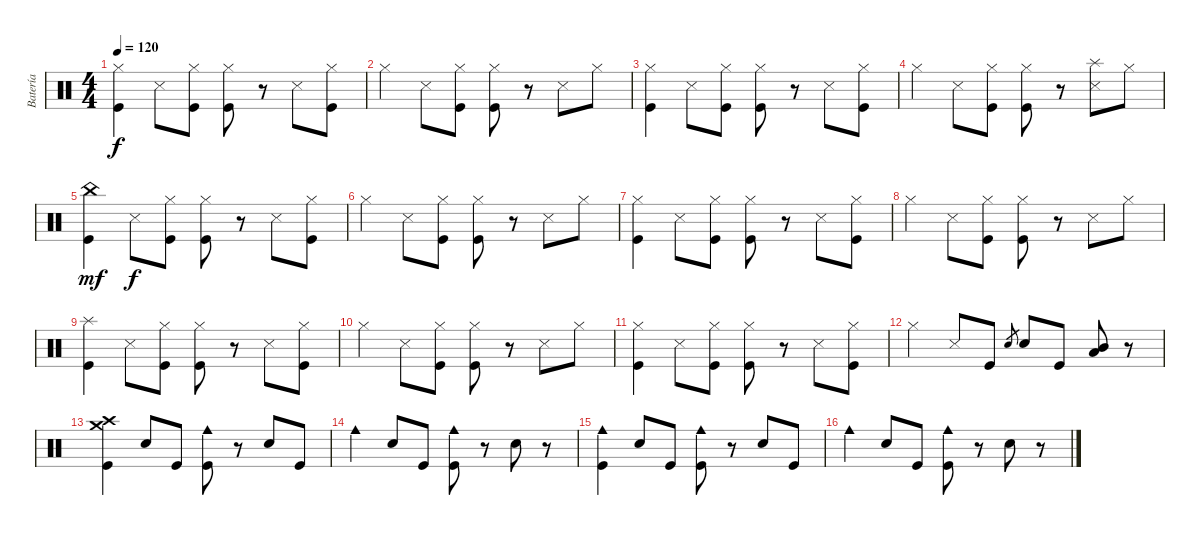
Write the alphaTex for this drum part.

\track ("Batería" "Batería") {instrument percussion}
\staff {score}
\articulation defaults
\ts (4 4)
\tempo 120
\clef neutral
\ks c
("Hi-Hat (closed)" "Kick (hit)").4{dy f} "Snare (side stick) 3".8 ("Hi-Hat (closed)" "Kick (hit)").8 ("Hi-Hat (closed)" "Kick (hit)").8 r.8 "Snare (side stick) 3".8 ("Hi-Hat (closed)" "Kick (hit)").8 |
"Hi-Hat (closed)".4 "Snare (side stick) 3".8 ("Hi-Hat (closed)" "Kick (hit)").8 ("Hi-Hat (closed)" "Kick (hit)").8 r.8 "Snare (side stick) 3".8 "Hi-Hat (closed)".8 |
("Hi-Hat (closed)" "Kick (hit)").4 "Snare (side stick) 3".8 ("Hi-Hat (closed)" "Kick (hit)").8 ("Hi-Hat (closed)" "Kick (hit)").8 r.8 "Snare (side stick) 3".8 ("Hi-Hat (closed)" "Kick (hit)").8 |
"Hi-Hat (closed)".4 "Snare (side stick) 3".8 ("Hi-Hat (closed)" "Kick (hit)").8 ("Hi-Hat (closed)" "Kick (hit)").8 r.8 ("Splash (hit)" "Snare (side stick) 3").8 "Hi-Hat (closed)".8 |
("China (hit)" "Kick (hit)").4{dy mf} "Snare (side stick) 3".8{dy f} ("Hi-Hat (closed)" "Kick (hit)").8 ("Hi-Hat (closed)" "Kick (hit)").8 r.8 "Snare (side stick) 3".8 ("Hi-Hat (closed)" "Kick (hit)").8 |
"Hi-Hat (closed)".4 "Snare (side stick) 3".8 ("Hi-Hat (closed)" "Kick (hit)").8 ("Hi-Hat (closed)" "Kick (hit)").8 r.8 "Snare (side stick) 3".8 "Hi-Hat (closed)".8 |
("Hi-Hat (closed)" "Kick (hit)").4 "Snare (side stick) 3".8 ("Hi-Hat (closed)" "Kick (hit)").8 ("Hi-Hat (closed)" "Kick (hit)").8 r.8 "Snare (side stick) 3".8 ("Hi-Hat (closed)" "Kick (hit)").8 |
"Hi-Hat (closed)".4 "Snare (side stick) 3".8 ("Hi-Hat (closed)" "Kick (hit)").8 ("Hi-Hat (closed)" "Kick (hit)").8 r.8 "Snare (side stick) 3".8 "Hi-Hat (closed)".8 |
("Splash (hit)" "Kick (hit)").4 "Snare (side stick) 3".8 ("Hi-Hat (closed)" "Kick (hit)").8 ("Hi-Hat (closed)" "Kick (hit)").8 r.8 "Snare (side stick) 3".8 ("Hi-Hat (closed)" "Kick (hit)").8 |
"Hi-Hat (closed)".4 "Snare (side stick) 3".8 ("Hi-Hat (closed)" "Kick (hit)").8 ("Hi-Hat (closed)" "Kick (hit)").8 r.8 "Snare (side stick) 3".8 "Hi-Hat (closed)".8 |
("Hi-Hat (closed)" "Kick (hit)").4 "Snare (side stick) 3".8 ("Hi-Hat (closed)" "Kick (hit)").8 ("Hi-Hat (closed)" "Kick (hit)").8 r.8 "Snare (side stick) 3".8 ("Hi-Hat (closed)" "Kick (hit)").8 |
"Hi-Hat (closed)".4 "Snare (side stick) 3".8 "Kick (hit)".8 "Electric Snare (hit)".8{gr} "Electric Snare (hit)".8 "Kick (hit)".8 ("Mid Tom (hit)" "Low Tom (hit)").8 r.8 |
("Crash medium (hit)" "Crash high (hit)" "Kick (hit)").4 "Electric Snare (hit)".8 "Kick (hit)".8 ("Cowbell medium (hit)" "Kick (hit)").8 r.8 "Electric Snare (hit)".8 "Kick (hit)".8 |
"Cowbell medium (hit)".4 "Electric Snare (hit)".8 "Kick (hit)".8 ("Cowbell medium (hit)" "Kick (hit)").8 r.8 "Electric Snare (hit)".8 r.8 |
("Cowbell medium (hit)" "Kick (hit)").4 "Electric Snare (hit)".8 "Kick (hit)".8 ("Cowbell medium (hit)" "Kick (hit)").8 r.8 "Electric Snare (hit)".8 "Kick (hit)".8 |
"Cowbell medium (hit)".4 "Electric Snare (hit)".8 "Kick (hit)".8 ("Cowbell medium (hit)" "Kick (hit)").8 r.8 "Electric Snare (hit)".8 r.8
